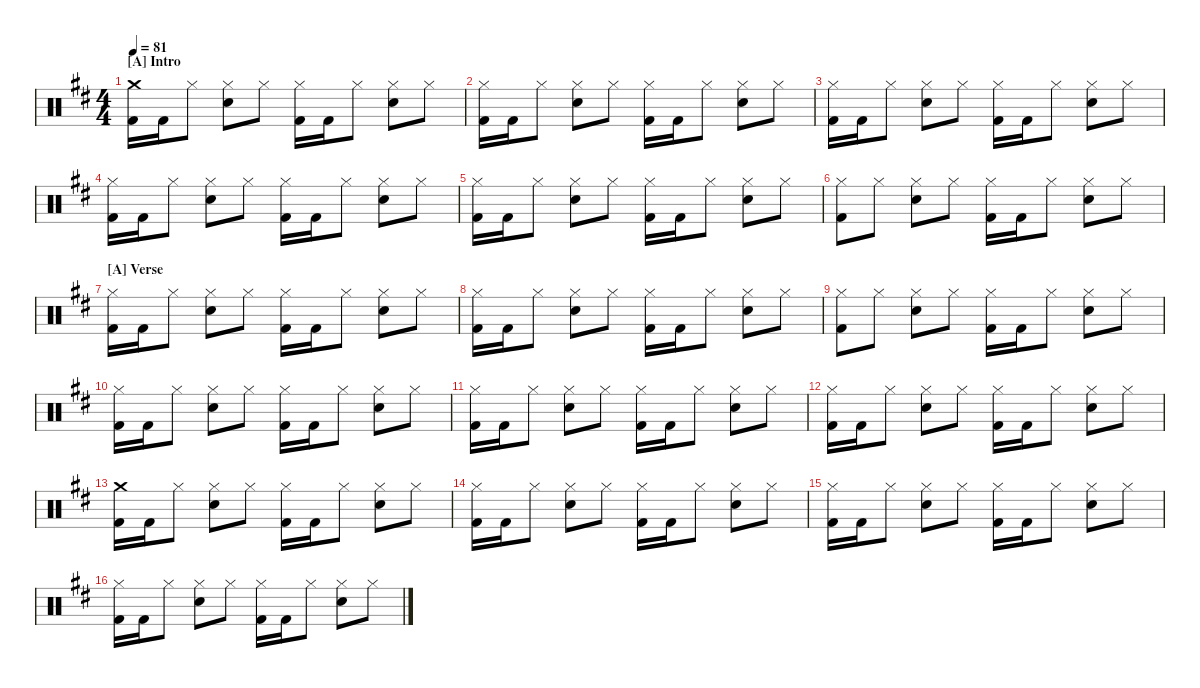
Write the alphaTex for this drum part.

\defaultSystemsLayout 4
\hideDynamics
\bracketExtendMode nobrackets
\singleTrackTrackNamePolicy hidden
\multiTrackTrackNamePolicy hidden
\otherSystemsTrackNameOrientation horizontal
\track ("Drumkit" "Drums") {defaultSystemsLayout 4 instrument percussion}
\staff {score}
\articulation defaults
\ts (4 4)
\beaming (8 2 2 2 2)
\section ("A" "Intro")
\tempo 81
\clef neutral
\ks d
("Kick (hit) 2"{acc forcenatural} "Crash medium (hit)"{acc forcenatural}).16{dy f beam Down} "Kick (hit) 2"{acc forcenatural}.16{beam Down} "Hi-Hat (closed)"{acc forcenatural}.8{beam Down} ("Snare (hit) 2"{acc forcenatural} "Hi-Hat (closed)"{acc forcenatural}).8{beam Down} "Hi-Hat (closed)"{acc forcenatural}.8{beam Down} ("Kick (hit) 2"{acc forcenatural} "Hi-Hat (closed)"{acc forcenatural}).16{beam Down} "Kick (hit) 2"{acc forcenatural}.16{beam Down} "Hi-Hat (closed)"{acc forcenatural}.8{beam Down} ("Snare (hit) 2"{acc forcenatural} "Hi-Hat (closed)"{acc forcenatural}).8{beam Down} "Hi-Hat (closed)"{acc forcenatural}.8{beam Down} |
("Kick (hit) 2"{acc forcenatural} "Hi-Hat (closed)"{acc forcenatural}).16{beam Down} "Kick (hit) 2"{acc forcenatural}.16{beam Down} "Hi-Hat (closed)"{acc forcenatural}.8{beam Down} ("Snare (hit) 2"{acc forcenatural} "Hi-Hat (closed)"{acc forcenatural}).8{beam Down} "Hi-Hat (closed)"{acc forcenatural}.8{beam Down} ("Kick (hit) 2"{acc forcenatural} "Hi-Hat (closed)"{acc forcenatural}).16{beam Down} "Kick (hit) 2"{acc forcenatural}.16{beam Down} "Hi-Hat (closed)"{acc forcenatural}.8{beam Down} ("Snare (hit) 2"{acc forcenatural} "Hi-Hat (closed)"{acc forcenatural}).8{beam Down} "Hi-Hat (closed)"{acc forcenatural}.8{beam Down} |
("Kick (hit) 2"{acc forcenatural} "Hi-Hat (closed)"{acc forcenatural}).16{beam Down} "Kick (hit) 2"{acc forcenatural}.16{beam Down} "Hi-Hat (closed)"{acc forcenatural}.8{beam Down} ("Snare (hit) 2"{acc forcenatural} "Hi-Hat (closed)"{acc forcenatural}).8{beam Down} "Hi-Hat (closed)"{acc forcenatural}.8{beam Down} ("Kick (hit) 2"{acc forcenatural} "Hi-Hat (closed)"{acc forcenatural}).16{beam Down} "Kick (hit) 2"{acc forcenatural}.16{beam Down} "Hi-Hat (closed)"{acc forcenatural}.8{beam Down} ("Snare (hit) 2"{acc forcenatural} "Hi-Hat (closed)"{acc forcenatural}).8{beam Down} "Hi-Hat (closed)"{acc forcenatural}.8{beam Down} |
("Kick (hit) 2"{acc forcenatural} "Hi-Hat (closed)"{acc forcenatural}).16{beam Down} "Kick (hit) 2"{acc forcenatural}.16{beam Down} "Hi-Hat (closed)"{acc forcenatural}.8{beam Down} ("Snare (hit) 2"{acc forcenatural} "Hi-Hat (closed)"{acc forcenatural}).8{beam Down} "Hi-Hat (closed)"{acc forcenatural}.8{beam Down} ("Kick (hit) 2"{acc forcenatural} "Hi-Hat (closed)"{acc forcenatural}).16{beam Down} "Kick (hit) 2"{acc forcenatural}.16{beam Down} "Hi-Hat (closed)"{acc forcenatural}.8{beam Down} ("Snare (hit) 2"{acc forcenatural} "Hi-Hat (closed)"{acc forcenatural}).8{beam Down} "Hi-Hat (closed)"{acc forcenatural}.8{beam Down} |
("Kick (hit) 2"{acc forcenatural} "Hi-Hat (closed)"{acc forcenatural}).16{beam Down} "Kick (hit) 2"{acc forcenatural}.16{beam Down} "Hi-Hat (closed)"{acc forcenatural}.8{beam Down} ("Snare (hit) 2"{acc forcenatural} "Hi-Hat (closed)"{acc forcenatural}).8{beam Down} "Hi-Hat (closed)"{acc forcenatural}.8{beam Down} ("Kick (hit) 2"{acc forcenatural} "Hi-Hat (closed)"{acc forcenatural}).16{beam Down} "Kick (hit) 2"{acc forcenatural}.16{beam Down} "Hi-Hat (closed)"{acc forcenatural}.8{beam Down} ("Snare (hit) 2"{acc forcenatural} "Hi-Hat (closed)"{acc forcenatural}).8{beam Down} "Hi-Hat (closed)"{acc forcenatural}.8{beam Down} |
("Kick (hit) 2"{acc forcenatural} "Hi-Hat (closed)"{acc forcenatural}).8{beam Down} "Hi-Hat (closed)"{acc forcenatural}.8{beam Down} ("Snare (hit) 2"{acc forcenatural} "Hi-Hat (closed)"{acc forcenatural}).8{beam Down} "Hi-Hat (closed)"{acc forcenatural}.8{beam Down} ("Kick (hit) 2"{acc forcenatural} "Hi-Hat (closed)"{acc forcenatural}).16{beam Down} "Kick (hit) 2"{acc forcenatural}.16{beam Down} "Hi-Hat (closed)"{acc forcenatural}.8{beam Down} ("Snare (hit) 2"{acc forcenatural} "Hi-Hat (closed)"{acc forcenatural}).8{beam Down} "Hi-Hat (closed)"{acc forcenatural}.8{beam Down} |
\section ("A" "Verse")
("Kick (hit) 2"{acc forcenatural} "Hi-Hat (closed)"{acc forcenatural}).16{beam Down} "Kick (hit) 2"{acc forcenatural}.16{beam Down} "Hi-Hat (closed)"{acc forcenatural}.8{beam Down} ("Snare (hit) 2"{acc forcenatural} "Hi-Hat (closed)"{acc forcenatural}).8{beam Down} "Hi-Hat (closed)"{acc forcenatural}.8{beam Down} ("Kick (hit) 2"{acc forcenatural} "Hi-Hat (closed)"{acc forcenatural}).16{beam Down} "Kick (hit) 2"{acc forcenatural}.16{beam Down} "Hi-Hat (closed)"{acc forcenatural}.8{beam Down} ("Snare (hit) 2"{acc forcenatural} "Hi-Hat (closed)"{acc forcenatural}).8{beam Down} "Hi-Hat (closed)"{acc forcenatural}.8{beam Down} |
("Kick (hit) 2"{acc forcenatural} "Hi-Hat (closed)"{acc forcenatural}).16{beam Down} "Kick (hit) 2"{acc forcenatural}.16{beam Down} "Hi-Hat (closed)"{acc forcenatural}.8{beam Down} ("Snare (hit) 2"{acc forcenatural} "Hi-Hat (closed)"{acc forcenatural}).8{beam Down} "Hi-Hat (closed)"{acc forcenatural}.8{beam Down} ("Kick (hit) 2"{acc forcenatural} "Hi-Hat (closed)"{acc forcenatural}).16{beam Down} "Kick (hit) 2"{acc forcenatural}.16{beam Down} "Hi-Hat (closed)"{acc forcenatural}.8{beam Down} ("Snare (hit) 2"{acc forcenatural} "Hi-Hat (closed)"{acc forcenatural}).8{beam Down} "Hi-Hat (closed)"{acc forcenatural}.8{beam Down} |
("Kick (hit) 2"{acc forcenatural} "Hi-Hat (closed)"{acc forcenatural}).8{beam Down} "Hi-Hat (closed)"{acc forcenatural}.8{beam Down} ("Snare (hit) 2"{acc forcenatural} "Hi-Hat (closed)"{acc forcenatural}).8{beam Down} "Hi-Hat (closed)"{acc forcenatural}.8{beam Down} ("Kick (hit) 2"{acc forcenatural} "Hi-Hat (closed)"{acc forcenatural}).16{beam Down} "Kick (hit) 2"{acc forcenatural}.16{beam Down} "Hi-Hat (closed)"{acc forcenatural}.8{beam Down} ("Snare (hit) 2"{acc forcenatural} "Hi-Hat (closed)"{acc forcenatural}).8{beam Down} "Hi-Hat (closed)"{acc forcenatural}.8{beam Down} |
("Kick (hit) 2"{acc forcenatural} "Hi-Hat (closed)"{acc forcenatural}).16{beam Down} "Kick (hit) 2"{acc forcenatural}.16{beam Down} "Hi-Hat (closed)"{acc forcenatural}.8{beam Down} ("Snare (hit) 2"{acc forcenatural} "Hi-Hat (closed)"{acc forcenatural}).8{beam Down} "Hi-Hat (closed)"{acc forcenatural}.8{beam Down} ("Kick (hit) 2"{acc forcenatural} "Hi-Hat (closed)"{acc forcenatural}).16{beam Down} "Kick (hit) 2"{acc forcenatural}.16{beam Down} "Hi-Hat (closed)"{acc forcenatural}.8{beam Down} ("Snare (hit) 2"{acc forcenatural} "Hi-Hat (closed)"{acc forcenatural}).8{beam Down} "Hi-Hat (closed)"{acc forcenatural}.8{beam Down} |
("Kick (hit) 2"{acc forcenatural} "Hi-Hat (closed)"{acc forcenatural}).16{beam Down} "Kick (hit) 2"{acc forcenatural}.16{beam Down} "Hi-Hat (closed)"{acc forcenatural}.8{beam Down} ("Snare (hit) 2"{acc forcenatural} "Hi-Hat (closed)"{acc forcenatural}).8{beam Down} "Hi-Hat (closed)"{acc forcenatural}.8{beam Down} ("Kick (hit) 2"{acc forcenatural} "Hi-Hat (closed)"{acc forcenatural}).16{beam Down} "Kick (hit) 2"{acc forcenatural}.16{beam Down} "Hi-Hat (closed)"{acc forcenatural}.8{beam Down} ("Snare (hit) 2"{acc forcenatural} "Hi-Hat (closed)"{acc forcenatural}).8{beam Down} "Hi-Hat (closed)"{acc forcenatural}.8{beam Down} |
("Kick (hit) 2"{acc forcenatural} "Hi-Hat (closed)"{acc forcenatural}).16{beam Down} "Kick (hit) 2"{acc forcenatural}.16{beam Down} "Hi-Hat (closed)"{acc forcenatural}.8{beam Down} ("Snare (hit) 2"{acc forcenatural} "Hi-Hat (closed)"{acc forcenatural}).8{beam Down} "Hi-Hat (closed)"{acc forcenatural}.8{beam Down} ("Kick (hit) 2"{acc forcenatural} "Hi-Hat (closed)"{acc forcenatural}).16{beam Down} "Kick (hit) 2"{acc forcenatural}.16{beam Down} "Hi-Hat (closed)"{acc forcenatural}.8{beam Down} ("Snare (hit) 2"{acc forcenatural} "Hi-Hat (closed)"{acc forcenatural}).8{beam Down} "Hi-Hat (closed)"{acc forcenatural}.8{beam Down} |
("Kick (hit) 2"{acc forcenatural} "Crash medium (hit)"{acc forcenatural}).16{beam Down} "Kick (hit) 2"{acc forcenatural}.16{beam Down} "Hi-Hat (closed)"{acc forcenatural}.8{beam Down} ("Snare (hit) 2"{acc forcenatural} "Hi-Hat (closed)"{acc forcenatural}).8{beam Down} "Hi-Hat (closed)"{acc forcenatural}.8{beam Down} ("Kick (hit) 2"{acc forcenatural} "Hi-Hat (closed)"{acc forcenatural}).16{beam Down} "Kick (hit) 2"{acc forcenatural}.16{beam Down} "Hi-Hat (closed)"{acc forcenatural}.8{beam Down} ("Snare (hit) 2"{acc forcenatural} "Hi-Hat (closed)"{acc forcenatural}).8{beam Down} "Hi-Hat (closed)"{acc forcenatural}.8{beam Down} |
("Kick (hit) 2"{acc forcenatural} "Hi-Hat (closed)"{acc forcenatural}).16{beam Down} "Kick (hit) 2"{acc forcenatural}.16{beam Down} "Hi-Hat (closed)"{acc forcenatural}.8{beam Down} ("Snare (hit) 2"{acc forcenatural} "Hi-Hat (closed)"{acc forcenatural}).8{beam Down} "Hi-Hat (closed)"{acc forcenatural}.8{beam Down} ("Kick (hit) 2"{acc forcenatural} "Hi-Hat (closed)"{acc forcenatural}).16{beam Down} "Kick (hit) 2"{acc forcenatural}.16{beam Down} "Hi-Hat (closed)"{acc forcenatural}.8{beam Down} ("Snare (hit) 2"{acc forcenatural} "Hi-Hat (closed)"{acc forcenatural}).8{beam Down} "Hi-Hat (closed)"{acc forcenatural}.8{beam Down} |
("Kick (hit) 2"{acc forcenatural} "Hi-Hat (closed)"{acc forcenatural}).16{beam Down} "Kick (hit) 2"{acc forcenatural}.16{beam Down} "Hi-Hat (closed)"{acc forcenatural}.8{beam Down} ("Snare (hit) 2"{acc forcenatural} "Hi-Hat (closed)"{acc forcenatural}).8{beam Down} "Hi-Hat (closed)"{acc forcenatural}.8{beam Down} ("Kick (hit) 2"{acc forcenatural} "Hi-Hat (closed)"{acc forcenatural}).16{beam Down} "Kick (hit) 2"{acc forcenatural}.16{beam Down} "Hi-Hat (closed)"{acc forcenatural}.8{beam Down} ("Snare (hit) 2"{acc forcenatural} "Hi-Hat (closed)"{acc forcenatural}).8{beam Down} "Hi-Hat (closed)"{acc forcenatural}.8{beam Down} |
("Kick (hit) 2"{acc forcenatural} "Hi-Hat (closed)"{acc forcenatural}).16{beam Down} "Kick (hit) 2"{acc forcenatural}.16{beam Down} "Hi-Hat (closed)"{acc forcenatural}.8{beam Down} ("Snare (hit) 2"{acc forcenatural} "Hi-Hat (closed)"{acc forcenatural}).8{beam Down} "Hi-Hat (closed)"{acc forcenatural}.8{beam Down} ("Kick (hit) 2"{acc forcenatural} "Hi-Hat (closed)"{acc forcenatural}).16{beam Down} "Kick (hit) 2"{acc forcenatural}.16{beam Down} "Hi-Hat (closed)"{acc forcenatural}.8{beam Down} ("Snare (hit) 2"{acc forcenatural} "Hi-Hat (closed)"{acc forcenatural}).8{beam Down} "Hi-Hat (closed)"{acc forcenatural}.8{beam Down}
